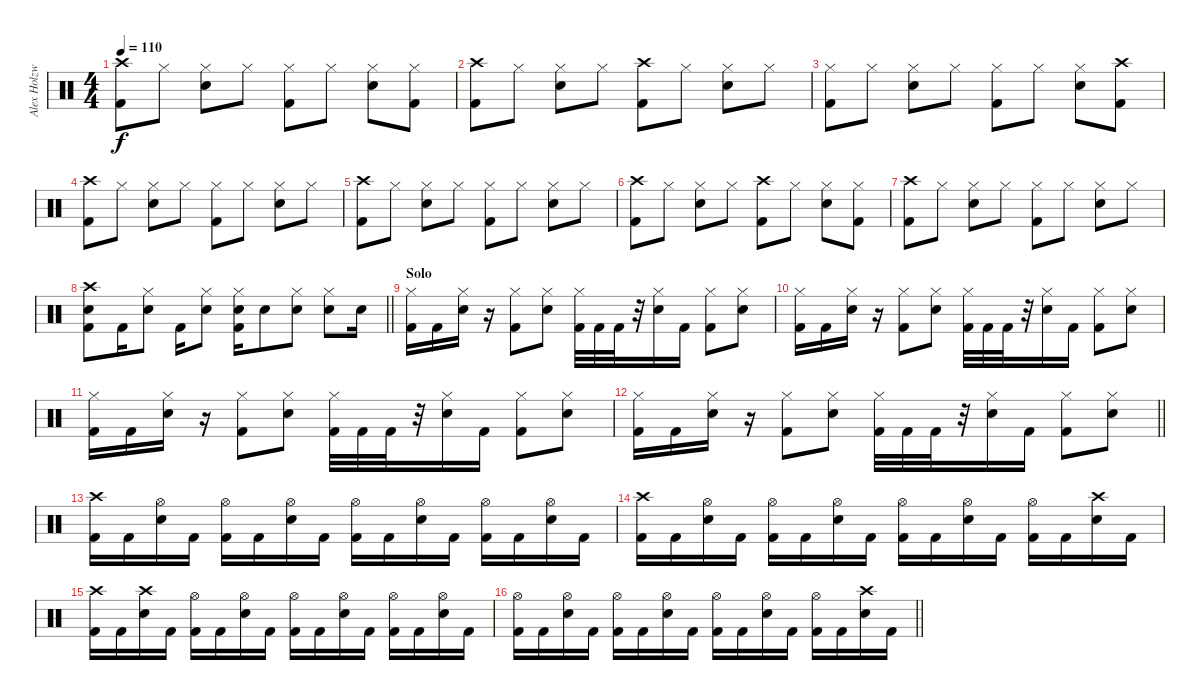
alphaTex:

\track ("Alex Holzwarth (Drums)" "Alex Holzw") {instrument percussion}
\staff {score}
\articulation defaults
\ts (4 4)
\tempo 110
\clef neutral
\ks c
("Crash high (hit)" "Kick (hit) 2").8{dy f} "Hi-Hat (closed)".8 ("Hi-Hat (closed)" "Electric Snare (hit)").8 "Hi-Hat (closed)".8 ("Hi-Hat (closed)" "Kick (hit) 2").8 "Hi-Hat (closed)".8 ("Hi-Hat (closed)" "Electric Snare (hit)").8 ("Hi-Hat (closed)" "Kick (hit) 2").8 |
("Crash high (hit)" "Kick (hit) 2").8 "Hi-Hat (closed)".8 ("Hi-Hat (closed)" "Electric Snare (hit)").8 "Hi-Hat (closed)".8 ("Crash high (hit)" "Kick (hit) 2").8 "Hi-Hat (closed)".8 ("Hi-Hat (closed)" "Electric Snare (hit)").8 "Hi-Hat (closed)".8 |
("Hi-Hat (closed)" "Kick (hit) 2").8 "Hi-Hat (closed)".8 ("Hi-Hat (closed)" "Electric Snare (hit)").8 "Hi-Hat (closed)".8 ("Hi-Hat (closed)" "Kick (hit) 2").8 "Hi-Hat (closed)".8 ("Hi-Hat (closed)" "Electric Snare (hit)").8 ("Crash high (hit)" "Kick (hit) 2").8 |
("Crash high (hit)" "Kick (hit) 2").8 "Hi-Hat (closed)".8 ("Hi-Hat (closed)" "Electric Snare (hit)").8 "Hi-Hat (closed)".8 ("Hi-Hat (closed)" "Kick (hit) 2").8 "Hi-Hat (closed)".8 ("Hi-Hat (closed)" "Electric Snare (hit)").8 "Hi-Hat (closed)".8 |
("Crash high (hit)" "Kick (hit) 2").8 "Hi-Hat (closed)".8 ("Hi-Hat (closed)" "Electric Snare (hit)").8 "Hi-Hat (closed)".8 ("Hi-Hat (closed)" "Kick (hit) 2").8 "Hi-Hat (closed)".8 ("Hi-Hat (closed)" "Electric Snare (hit)").8 "Hi-Hat (closed)".8 |
("Crash high (hit)" "Kick (hit) 2").8 "Hi-Hat (closed)".8 ("Hi-Hat (closed)" "Electric Snare (hit)").8 "Hi-Hat (closed)".8 ("Crash high (hit)" "Kick (hit) 2").8 "Hi-Hat (closed)".8 ("Hi-Hat (closed)" "Electric Snare (hit)").8 ("Hi-Hat (closed)" "Kick (hit) 2").8 |
("Crash high (hit)" "Kick (hit) 2").8 "Hi-Hat (closed)".8 ("Hi-Hat (closed)" "Electric Snare (hit)").8 "Hi-Hat (closed)".8 ("Hi-Hat (closed)" "Kick (hit) 2").8 "Hi-Hat (closed)".8 ("Hi-Hat (closed)" "Electric Snare (hit)").8 "Hi-Hat (closed)".8 |
\barLineRight lightlight
("Crash high (hit)" "Electric Snare (hit)" "Kick (hit) 2").8 "Kick (hit) 2".16 ("Hi-Hat (closed)" "Electric Snare (hit)").8 "Kick (hit) 2".16 ("Hi-Hat (closed)" "Electric Snare (hit)").8 ("Hi-Hat (closed)" "Electric Snare (hit)" "Kick (hit) 2").16 "Electric Snare (hit)".8 ("Hi-Hat (closed)" "Electric Snare (hit)").8 ("Hi-Hat (closed)" "Electric Snare (hit)").8 "Electric Snare (hit)".16 |
\section ("" "Solo")
("Hi-Hat (closed)" "Kick (hit) 2").16 "Kick (hit) 2".16 ("Hi-Hat (closed)" "Electric Snare (hit)").16 r.16 ("Hi-Hat (closed)" "Kick (hit) 2").8 ("Hi-Hat (closed)" "Electric Snare (hit)").8 ("Hi-Hat (closed)" "Kick (hit) 2").32 "Kick (hit) 2".32 "Kick (hit) 2".32 r.32 ("Hi-Hat (closed)" "Electric Snare (hit)").16 "Kick (hit) 2".16 ("Hi-Hat (closed)" "Kick (hit) 2").8 ("Hi-Hat (closed)" "Electric Snare (hit)").8 |
("Hi-Hat (closed)" "Kick (hit) 2").16 "Kick (hit) 2".16 ("Hi-Hat (closed)" "Electric Snare (hit)").16 r.16 ("Hi-Hat (closed)" "Kick (hit) 2").8 ("Hi-Hat (closed)" "Electric Snare (hit)").8 ("Hi-Hat (closed)" "Kick (hit) 2").32 "Kick (hit) 2".32 "Kick (hit) 2".32 r.32 ("Hi-Hat (closed)" "Electric Snare (hit)").16 "Kick (hit) 2".16 ("Hi-Hat (closed)" "Kick (hit) 2").8 ("Hi-Hat (closed)" "Electric Snare (hit)").8 |
("Hi-Hat (closed)" "Kick (hit) 2").16 "Kick (hit) 2".16 ("Hi-Hat (closed)" "Electric Snare (hit)").16 r.16 ("Hi-Hat (closed)" "Kick (hit) 2").8 ("Hi-Hat (closed)" "Electric Snare (hit)").8 ("Hi-Hat (closed)" "Kick (hit) 2").32 "Kick (hit) 2".32 "Kick (hit) 2".32 r.32 ("Hi-Hat (closed)" "Electric Snare (hit)").16 "Kick (hit) 2".16 ("Hi-Hat (closed)" "Kick (hit) 2").8 ("Hi-Hat (closed)" "Electric Snare (hit)").8 |
\barLineRight lightlight
("Hi-Hat (closed)" "Kick (hit) 2").16 "Kick (hit) 2".16 ("Hi-Hat (closed)" "Electric Snare (hit)").16 r.16 ("Hi-Hat (closed)" "Kick (hit) 2").8 ("Hi-Hat (closed)" "Electric Snare (hit)").8 ("Hi-Hat (closed)" "Kick (hit) 2").32 "Kick (hit) 2".32 "Kick (hit) 2".32 r.32 ("Hi-Hat (closed)" "Electric Snare (hit)").16 "Kick (hit) 2".16 ("Hi-Hat (closed)" "Kick (hit) 2").8 ("Hi-Hat (closed)" "Electric Snare (hit)").8 |
("Crash high (hit)" "Kick (hit) 2").16 "Kick (hit) 2".16 ("Hi-Hat (open)" "Electric Snare (hit)").16 "Kick (hit) 2".16 ("Hi-Hat (open)" "Kick (hit) 2").16 "Kick (hit) 2".16 ("Hi-Hat (open)" "Electric Snare (hit)").16 "Kick (hit) 2".16 ("Hi-Hat (open)" "Kick (hit) 2").16 "Kick (hit) 2".16 ("Hi-Hat (open)" "Electric Snare (hit)").16 "Kick (hit) 2".16 ("Hi-Hat (open)" "Kick (hit) 2").16 "Kick (hit) 2".16 ("Hi-Hat (open)" "Electric Snare (hit)").16 "Kick (hit) 2".16 |
("Crash high (hit)" "Kick (hit) 2").16 "Kick (hit) 2".16 ("Hi-Hat (open)" "Electric Snare (hit)").16 "Kick (hit) 2".16 ("Hi-Hat (open)" "Kick (hit) 2").16 "Kick (hit) 2".16 ("Hi-Hat (open)" "Electric Snare (hit)").16 "Kick (hit) 2".16 ("Hi-Hat (open)" "Kick (hit) 2").16 "Kick (hit) 2".16 ("Hi-Hat (open)" "Electric Snare (hit)").16 "Kick (hit) 2".16 ("Hi-Hat (open)" "Kick (hit) 2").16 "Kick (hit) 2".16 ("Crash high (hit)" "Electric Snare (hit)").16 "Kick (hit) 2".16 |
("Crash high (hit)" "Kick (hit) 2").16 "Kick (hit) 2".16 ("Crash high (hit)" "Electric Snare (hit)").16 "Kick (hit) 2".16 ("Hi-Hat (open)" "Kick (hit) 2").16 "Kick (hit) 2".16 ("Hi-Hat (open)" "Electric Snare (hit)").16 "Kick (hit) 2".16 ("Hi-Hat (open)" "Kick (hit) 2").16 "Kick (hit) 2".16 ("Hi-Hat (open)" "Electric Snare (hit)").16 "Kick (hit) 2".16 ("Hi-Hat (open)" "Kick (hit) 2").16 "Kick (hit) 2".16 ("Hi-Hat (open)" "Electric Snare (hit)").16 "Kick (hit) 2".16 |
\barLineRight lightlight
("Hi-Hat (open)" "Kick (hit) 2").16 "Kick (hit) 2".16 ("Hi-Hat (open)" "Electric Snare (hit)").16 "Kick (hit) 2".16 ("Hi-Hat (open)" "Kick (hit) 2").16 "Kick (hit) 2".16 ("Hi-Hat (open)" "Electric Snare (hit)").16 "Kick (hit) 2".16 ("Hi-Hat (open)" "Kick (hit) 2").16 "Kick (hit) 2".16 ("Hi-Hat (open)" "Electric Snare (hit)").16 "Kick (hit) 2".16 ("Hi-Hat (open)" "Kick (hit) 2").16 "Kick (hit) 2".16 ("Crash high (hit)" "Electric Snare (hit)").16 "Kick (hit) 2".16
